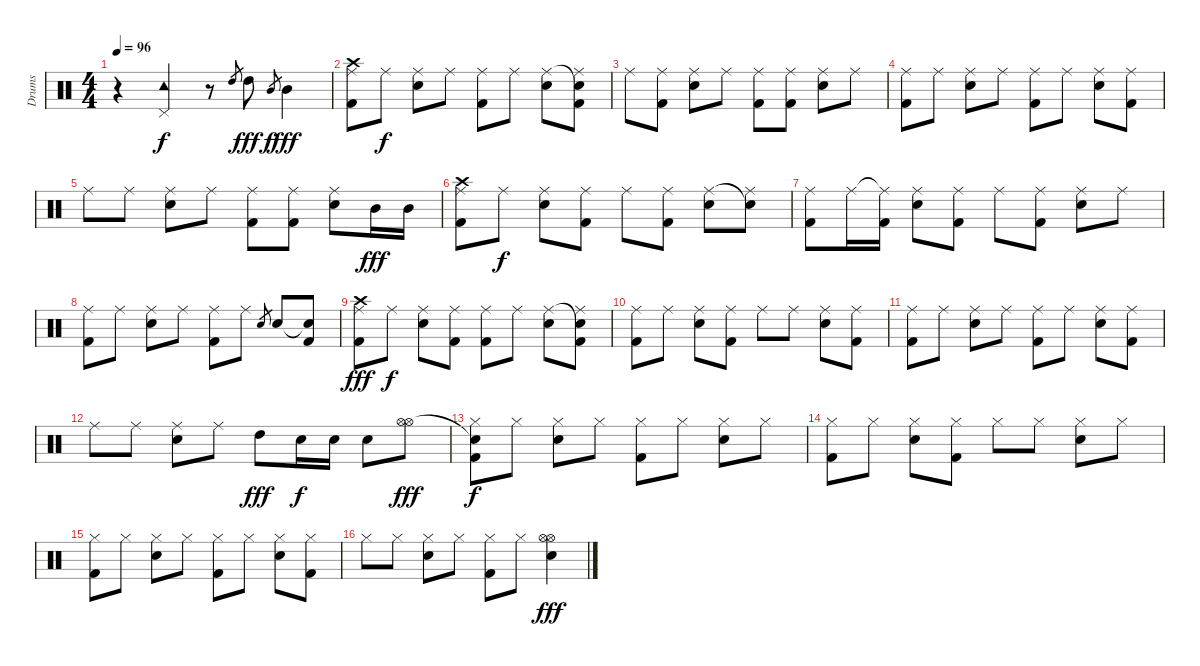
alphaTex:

\track ("Drums" "Drums") {instrument percussion}
\staff {score}
\articulation defaults
\ts (4 4)
\tempo 96
\clef neutral
\ks c
r.4{dy f} ("Pedal Hi-Hat (hit)" "Tambourine (hit)").4 r.8 "High Tom (hit)".8{gr} "High Tom (hit)".8{dy fff} "Mid Tom (hit)".8{gr dy f} "Mid Tom (hit)".4{dy fff} |
("Crash high (hit)" "Ride (middle)" "Kick (hit) 2").8 "Ride (middle)".8{dy f} ("Ride (middle)" "Snare (hit) 2").8 "Ride (middle)".8 ("Ride (middle)" "Kick (hit) 2").8 "Ride (middle)".8 ("Ride (middle)" "Snare (hit) 2").8 ("Snare (hit)"{t} "Ride (middle)" "Kick (hit) 2").8 |
"Ride (middle)".8 ("Ride (middle)" "Kick (hit) 2").8 ("Ride (middle)" "Snare (hit) 2").8 "Ride (middle)".8 ("Ride (middle)" "Kick (hit) 2").8 ("Ride (middle)" "Kick (hit) 2").8 ("Ride (middle)" "Snare (hit) 2").8 "Ride (middle)".8 |
("Ride (middle)" "Kick (hit) 2").8 "Ride (middle)".8 ("Ride (middle)" "Snare (hit) 2").8 "Ride (middle)".8 ("Ride (middle)" "Kick (hit) 2").8 "Ride (middle)".8 ("Ride (middle)" "Snare (hit) 2").8 ("Ride (middle)" "Kick (hit) 2").8 |
"Ride (middle)".8 "Ride (middle)".8 ("Ride (middle)" "Snare (hit) 2").8 "Ride (middle)".8 ("Ride (middle)" "Kick (hit) 2").8 ("Ride (middle)" "Kick (hit) 2").8 ("Ride (middle)" "Snare (hit) 2").8 "Mid Tom (hit)".16{dy fff} "Mid Tom (hit)".16 |
("Crash high (hit)" "Ride (middle)" "Kick (hit) 2").8 "Ride (middle)".8{dy f} ("Ride (middle)" "Snare (hit) 2").8 ("Ride (middle)" "Kick (hit) 2").8 "Ride (middle)".8 ("Ride (middle)" "Kick (hit) 2").8 ("Ride (middle)" "Snare (hit) 2").8 ("Snare (hit)"{t} "Ride (middle)").8 |
("Ride (middle)" "Kick (hit) 2").8 "Ride (middle)".16 ("Ride (middle)"{t} "Kick (hit) 2").16 ("Ride (middle)" "Snare (hit) 2").8 ("Ride (middle)" "Kick (hit) 2").8 "Ride (middle)".8 ("Ride (middle)" "Kick (hit) 2").8 ("Ride (middle)" "Snare (hit) 2").8 "Ride (middle)".8 |
("Ride (middle)" "Kick (hit) 2").8 "Ride (middle)".8 ("Ride (middle)" "Snare (hit) 2").8 "Ride (middle)".8 ("Ride (middle)" "Kick (hit) 2").8 "Ride (middle)".8 "Snare (hit) 2".8{gr} "Snare (hit) 2".8 ("Snare (hit)"{t} "Kick (hit) 2").8 |
("Crash high (hit)" "Ride (middle)" "Kick (hit) 2").8{dy fff} "Ride (middle)".8{dy f} ("Ride (middle)" "Snare (hit) 2").8 ("Ride (middle)" "Kick (hit) 2").8 ("Ride (middle)" "Kick (hit) 2").8 "Ride (middle)".8 ("Ride (middle)" "Snare (hit) 2").8 ("Snare (hit)"{t} "Ride (middle)" "Kick (hit) 2").8 |
("Ride (middle)" "Kick (hit) 2").8 "Ride (middle)".8 ("Ride (middle)" "Snare (hit) 2").8 ("Ride (middle)" "Kick (hit) 2").8 "Ride (middle)".8 "Ride (middle)".8 ("Ride (middle)" "Snare (hit) 2").8 ("Ride (middle)" "Kick (hit) 2").8 |
("Ride (middle)" "Kick (hit) 2").8 "Ride (middle)".8 ("Ride (middle)" "Snare (hit) 2").8 "Ride (middle)".8 ("Ride (middle)" "Kick (hit) 2").8 "Ride (middle)".8 ("Ride (middle)" "Snare (hit) 2").8 ("Ride (middle)" "Kick (hit) 2").8 |
"Ride (middle)".8 "Ride (middle)".8 ("Ride (middle)" "Snare (hit) 2").8 "Ride (middle)".8 "High Tom (hit)".8{dy fff} "Snare (hit) 2".16{dy f} "Snare (hit) 2".16 "Snare (hit) 2".8 ("Hi-Hat (open)" "Hi-Hat (open)").8{dy fff} |
("Snare (hit)"{t} "Hi-Hat (closed)" "Kick (hit) 2").8{dy f} "Hi-Hat (closed)".8 ("Hi-Hat (closed)" "Snare (hit) 2").8 "Hi-Hat (closed)".8 ("Hi-Hat (closed)" "Kick (hit) 2").8 "Hi-Hat (closed)".8 ("Hi-Hat (closed)" "Snare (hit) 2").8 "Hi-Hat (closed)".8 |
("Hi-Hat (closed)" "Kick (hit) 2").8 "Hi-Hat (closed)".8 ("Hi-Hat (closed)" "Snare (hit) 2").8 ("Hi-Hat (closed)" "Kick (hit) 2").8 "Hi-Hat (closed)".8 "Hi-Hat (closed)".8 ("Hi-Hat (closed)" "Snare (hit) 2").8 "Hi-Hat (closed)".8 |
("Hi-Hat (closed)" "Kick (hit) 2").8 "Hi-Hat (closed)".8 ("Hi-Hat (closed)" "Snare (hit) 2").8 "Hi-Hat (closed)".8 ("Hi-Hat (closed)" "Kick (hit) 2").8 "Hi-Hat (closed)".8 ("Hi-Hat (closed)" "Snare (hit) 2").8 ("Hi-Hat (closed)" "Kick (hit) 2").8 |
"Hi-Hat (closed)".8 "Hi-Hat (closed)".8 ("Hi-Hat (closed)" "Snare (hit) 2").8 "Hi-Hat (closed)".8 ("Hi-Hat (closed)" "Kick (hit) 2").8 "Hi-Hat (closed)".8 ("Hi-Hat (open)" "Hi-Hat (open)" "Snare (hit) 2").4{dy fff}
